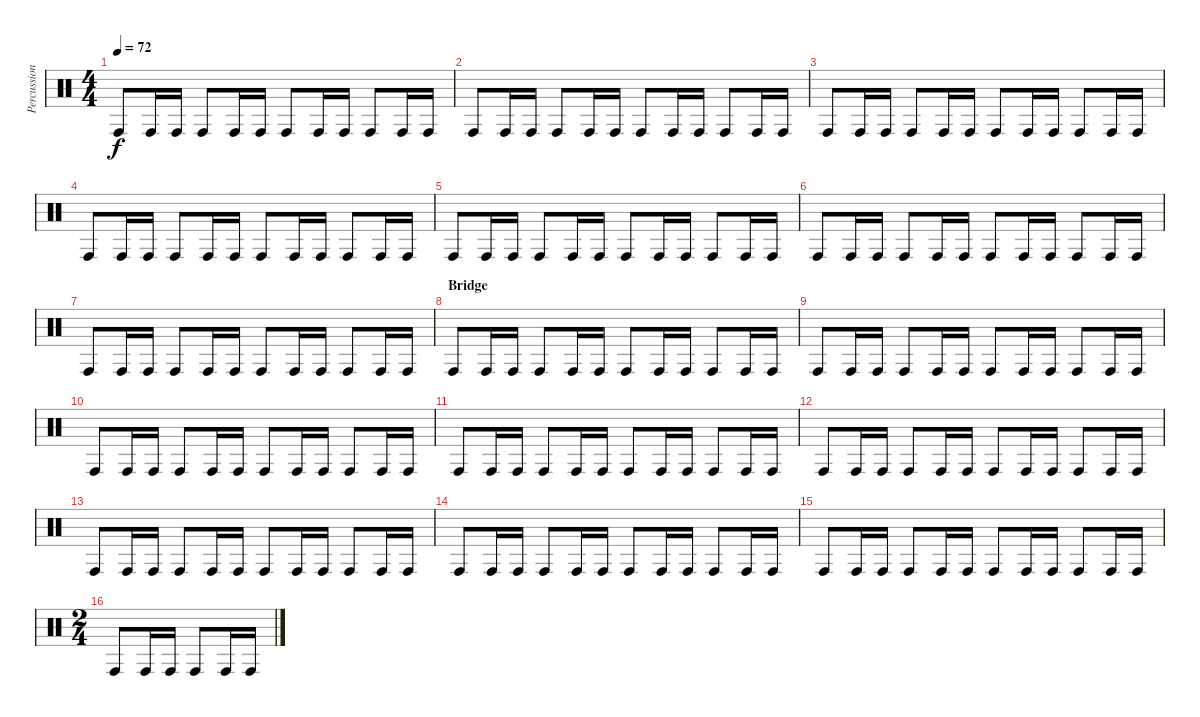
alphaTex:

\track ("Percussions" "Percussion") {instrument percussion}
\staff {score}
\articulation defaults
\ts (4 4)
\tempo 72
\clef neutral
\ks c "Conga high (hit)".8{dy f} "Conga high (hit)".16 "Conga high (hit)".16 "Conga high (hit)".8 "Conga high (hit)".16 "Conga high (hit)".16 "Conga high (hit)".8 "Conga high (hit)".16 "Conga high (hit)".16 "Conga high (hit)".8 "Conga high (hit)".16 "Conga high (hit)".16
|
"Conga high (hit)".8 "Conga high (hit)".16 "Conga high (hit)".16 "Conga high (hit)".8 "Conga high (hit)".16 "Conga high (hit)".16 "Conga high (hit)".8 "Conga high (hit)".16 "Conga high (hit)".16 "Conga high (hit)".8 "Conga high (hit)".16 "Conga high (hit)".16 |
"Conga high (hit)".8 "Conga high (hit)".16 "Conga high (hit)".16 "Conga high (hit)".8 "Conga high (hit)".16 "Conga high (hit)".16 "Conga high (hit)".8 "Conga high (hit)".16 "Conga high (hit)".16 "Conga high (hit)".8 "Conga high (hit)".16 "Conga high (hit)".16 |
"Conga high (hit)".8 "Conga high (hit)".16 "Conga high (hit)".16 "Conga high (hit)".8 "Conga high (hit)".16 "Conga high (hit)".16 "Conga high (hit)".8 "Conga high (hit)".16 "Conga high (hit)".16 "Conga high (hit)".8 "Conga high (hit)".16 "Conga high (hit)".16 |
"Conga high (hit)".8 "Conga high (hit)".16 "Conga high (hit)".16 "Conga high (hit)".8 "Conga high (hit)".16 "Conga high (hit)".16 "Conga high (hit)".8 "Conga high (hit)".16 "Conga high (hit)".16 "Conga high (hit)".8 "Conga high (hit)".16 "Conga high (hit)".16 |
"Conga high (hit)".8 "Conga high (hit)".16 "Conga high (hit)".16 "Conga high (hit)".8 "Conga high (hit)".16 "Conga high (hit)".16 "Conga high (hit)".8 "Conga high (hit)".16 "Conga high (hit)".16 "Conga high (hit)".8 "Conga high (hit)".16 "Conga high (hit)".16 |
"Conga high (hit)".8 "Conga high (hit)".16 "Conga high (hit)".16 "Conga high (hit)".8 "Conga high (hit)".16 "Conga high (hit)".16 "Conga high (hit)".8 "Conga high (hit)".16 "Conga high (hit)".16 "Conga high (hit)".8 "Conga high (hit)".16 "Conga high (hit)".16 |
\section ("" "Bridge")
"Conga high (hit)".8 "Conga high (hit)".16 "Conga high (hit)".16 "Conga high (hit)".8 "Conga high (hit)".16 "Conga high (hit)".16 "Conga high (hit)".8 "Conga high (hit)".16 "Conga high (hit)".16 "Conga high (hit)".8 "Conga high (hit)".16 "Conga high (hit)".16 |
"Conga high (hit)".8 "Conga high (hit)".16 "Conga high (hit)".16 "Conga high (hit)".8 "Conga high (hit)".16 "Conga high (hit)".16 "Conga high (hit)".8 "Conga high (hit)".16 "Conga high (hit)".16 "Conga high (hit)".8 "Conga high (hit)".16 "Conga high (hit)".16 |
"Conga high (hit)".8 "Conga high (hit)".16 "Conga high (hit)".16 "Conga high (hit)".8 "Conga high (hit)".16 "Conga high (hit)".16 "Conga high (hit)".8 "Conga high (hit)".16 "Conga high (hit)".16 "Conga high (hit)".8 "Conga high (hit)".16 "Conga high (hit)".16 |
"Conga high (hit)".8 "Conga high (hit)".16 "Conga high (hit)".16 "Conga high (hit)".8 "Conga high (hit)".16 "Conga high (hit)".16 "Conga high (hit)".8 "Conga high (hit)".16 "Conga high (hit)".16 "Conga high (hit)".8 "Conga high (hit)".16 "Conga high (hit)".16 |
"Conga high (hit)".8 "Conga high (hit)".16 "Conga high (hit)".16 "Conga high (hit)".8 "Conga high (hit)".16 "Conga high (hit)".16 "Conga high (hit)".8 "Conga high (hit)".16 "Conga high (hit)".16 "Conga high (hit)".8 "Conga high (hit)".16 "Conga high (hit)".16 |
"Conga high (hit)".8 "Conga high (hit)".16 "Conga high (hit)".16 "Conga high (hit)".8 "Conga high (hit)".16 "Conga high (hit)".16 "Conga high (hit)".8 "Conga high (hit)".16 "Conga high (hit)".16 "Conga high (hit)".8 "Conga high (hit)".16 "Conga high (hit)".16 |
"Conga high (hit)".8 "Conga high (hit)".16 "Conga high (hit)".16 "Conga high (hit)".8 "Conga high (hit)".16 "Conga high (hit)".16 "Conga high (hit)".8 "Conga high (hit)".16 "Conga high (hit)".16 "Conga high (hit)".8 "Conga high (hit)".16 "Conga high (hit)".16 |
"Conga high (hit)".8 "Conga high (hit)".16 "Conga high (hit)".16 "Conga high (hit)".8 "Conga high (hit)".16 "Conga high (hit)".16 "Conga high (hit)".8 "Conga high (hit)".16 "Conga high (hit)".16 "Conga high (hit)".8 "Conga high (hit)".16 "Conga high (hit)".16 |
\ts (2 4)
"Conga high (hit)".8 "Conga high (hit)".16 "Conga high (hit)".16 "Conga high (hit)".8 "Conga high (hit)".16 "Conga high (hit)".16
